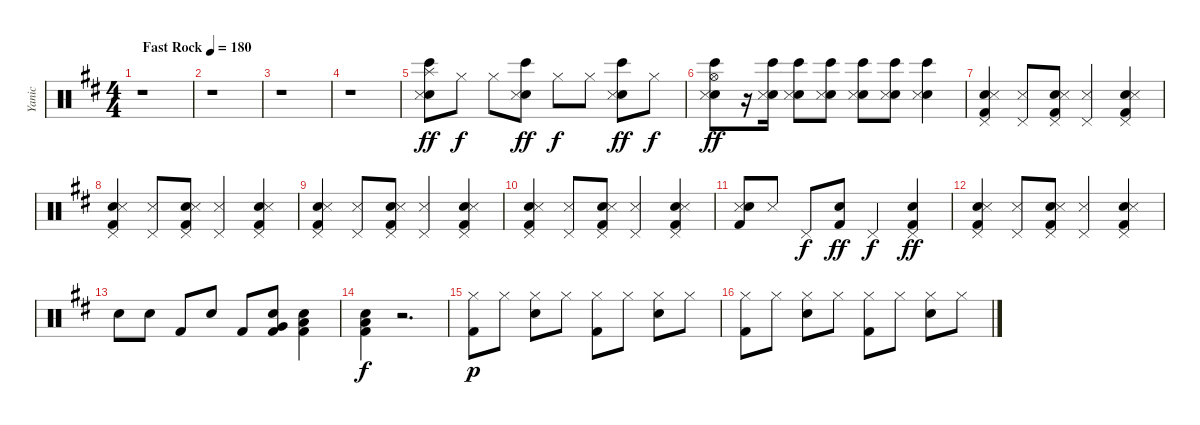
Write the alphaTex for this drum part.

\track ("Yanic" "Yanic") {instrument percussion}
\staff {score}
\articulation defaults
\ts (4 4)
\tempo (180 "Fast Rock")
\clef neutral
\ks d
r.1{dy ff} |
r.1 |
r.1 |
r.1 |
("Bongo High (hit)" "Splash (hit)" "Electric Snare (hit)" "Snare (side stick) 3").8 "Hi-Hat (closed)".8{dy f} "Hi-Hat (closed)".8 ("Bongo High (hit)" "Electric Snare (hit)" "Snare (side stick) 3").8{dy ff} "Hi-Hat (closed)".8{dy f} "Hi-Hat (closed)".8 ("Bongo High (hit)" "Electric Snare (hit)" "Snare (side stick) 3").8{dy ff} "Hi-Hat (closed)".8{dy f} |
("Bongo High (hit)" "Hi-Hat (open)" "Electric Snare (hit)" "Snare (side stick) 3").8{dy ff} r.16 ("Bongo High (hit)" "Electric Snare (hit)" "Snare (side stick) 3").16 ("Bongo High (hit)" "Electric Snare (hit)" "Snare (side stick) 3").8 ("Bongo High (hit)" "Electric Snare (hit)" "Snare (side stick) 3").8 ("Bongo High (hit)" "Electric Snare (hit)" "Snare (side stick) 3").8 ("Bongo High (hit)" "Electric Snare (hit)" "Snare (side stick) 3").8 ("Bongo High (hit)" "Electric Snare (hit)" "Snare (side stick) 3").4 |
("Kick (hit) 2" "Pedal Hi-Hat (hit)" "Electric Snare (hit)" "Snare (side stick) 3").4 ("Pedal Hi-Hat (hit)" "Snare (side stick) 3").8 ("Kick (hit) 2" "Pedal Hi-Hat (hit)" "Electric Snare (hit)" "Snare (side stick) 3").8 ("Pedal Hi-Hat (hit)" "Snare (side stick) 3").4 ("Kick (hit) 2" "Pedal Hi-Hat (hit)" "Electric Snare (hit)" "Snare (side stick) 3").4 |
("Kick (hit) 2" "Pedal Hi-Hat (hit)" "Electric Snare (hit)" "Snare (side stick) 3").4 ("Pedal Hi-Hat (hit)" "Snare (side stick) 3").8 ("Kick (hit) 2" "Pedal Hi-Hat (hit)" "Electric Snare (hit)" "Snare (side stick) 3").8 ("Pedal Hi-Hat (hit)" "Snare (side stick) 3").4 ("Kick (hit) 2" "Pedal Hi-Hat (hit)" "Electric Snare (hit)" "Snare (side stick) 3").4 |
("Kick (hit) 2" "Pedal Hi-Hat (hit)" "Electric Snare (hit)" "Snare (side stick) 3").4 ("Pedal Hi-Hat (hit)" "Snare (side stick) 3").8 ("Kick (hit) 2" "Pedal Hi-Hat (hit)" "Electric Snare (hit)" "Snare (side stick) 3").8 ("Pedal Hi-Hat (hit)" "Snare (side stick) 3").4 ("Kick (hit) 2" "Pedal Hi-Hat (hit)" "Electric Snare (hit)" "Snare (side stick) 3").4 |
("Kick (hit) 2" "Pedal Hi-Hat (hit)" "Electric Snare (hit)" "Snare (side stick) 3").4 ("Pedal Hi-Hat (hit)" "Snare (side stick) 3").8 ("Kick (hit) 2" "Pedal Hi-Hat (hit)" "Electric Snare (hit)" "Snare (side stick) 3").8 ("Pedal Hi-Hat (hit)" "Snare (side stick) 3").4 ("Kick (hit) 2" "Pedal Hi-Hat (hit)" "Electric Snare (hit)" "Snare (side stick) 3").4 |
("Kick (hit) 2" "Snare (side stick) 3" "Electric Snare (hit)").8 "Snare (side stick) 3".8 "Pedal Hi-Hat (hit)".8{dy f} ("Kick (hit) 2" "Electric Snare (hit)").8{dy ff} "Pedal Hi-Hat (hit)".4{dy f} ("Kick (hit) 2" "Pedal Hi-Hat (hit)" "Electric Snare (hit)").4{dy ff} |
("Kick (hit) 2" "Pedal Hi-Hat (hit)" "Electric Snare (hit)" "Snare (side stick) 3").4 ("Pedal Hi-Hat (hit)" "Snare (side stick) 3").8 ("Kick (hit) 2" "Pedal Hi-Hat (hit)" "Electric Snare (hit)" "Snare (side stick) 3").8 ("Pedal Hi-Hat (hit)" "Snare (side stick) 3").4 ("Kick (hit) 2" "Pedal Hi-Hat (hit)" "Electric Snare (hit)" "Snare (side stick) 3").4 |
"Electric Snare (hit)".8 "Electric Snare (hit)".8 "Kick (hit) 2".8 "Electric Snare (hit)".8 "Kick (hit) 2".8 ("Very Low Tom (hit)" "Kick (hit) 2" "Electric Snare (hit)").8 ("Low Floor Tom (hit)" "Kick (hit) 2" "Electric Snare (hit)").4 |
("Low Floor Tom (hit)" "Kick (hit) 2" "Electric Snare (hit)").4{dy f} r.2{d} |
("Kick (hit) 2" "Hi-Hat (closed)").8{dy p} "Hi-Hat (closed)".8 ("Electric Snare (hit)" "Hi-Hat (closed)").8 "Hi-Hat (closed)".8 ("Kick (hit) 2" "Hi-Hat (closed)").8 "Hi-Hat (closed)".8 ("Electric Snare (hit)" "Hi-Hat (closed)").8 "Hi-Hat (closed)".8 |
("Kick (hit) 2" "Hi-Hat (closed)").8 "Hi-Hat (closed)".8 ("Electric Snare (hit)" "Hi-Hat (closed)").8 "Hi-Hat (closed)".8 ("Kick (hit) 2" "Hi-Hat (closed)").8 "Hi-Hat (closed)".8 ("Electric Snare (hit)" "Hi-Hat (closed)").8 "Hi-Hat (closed)".8
